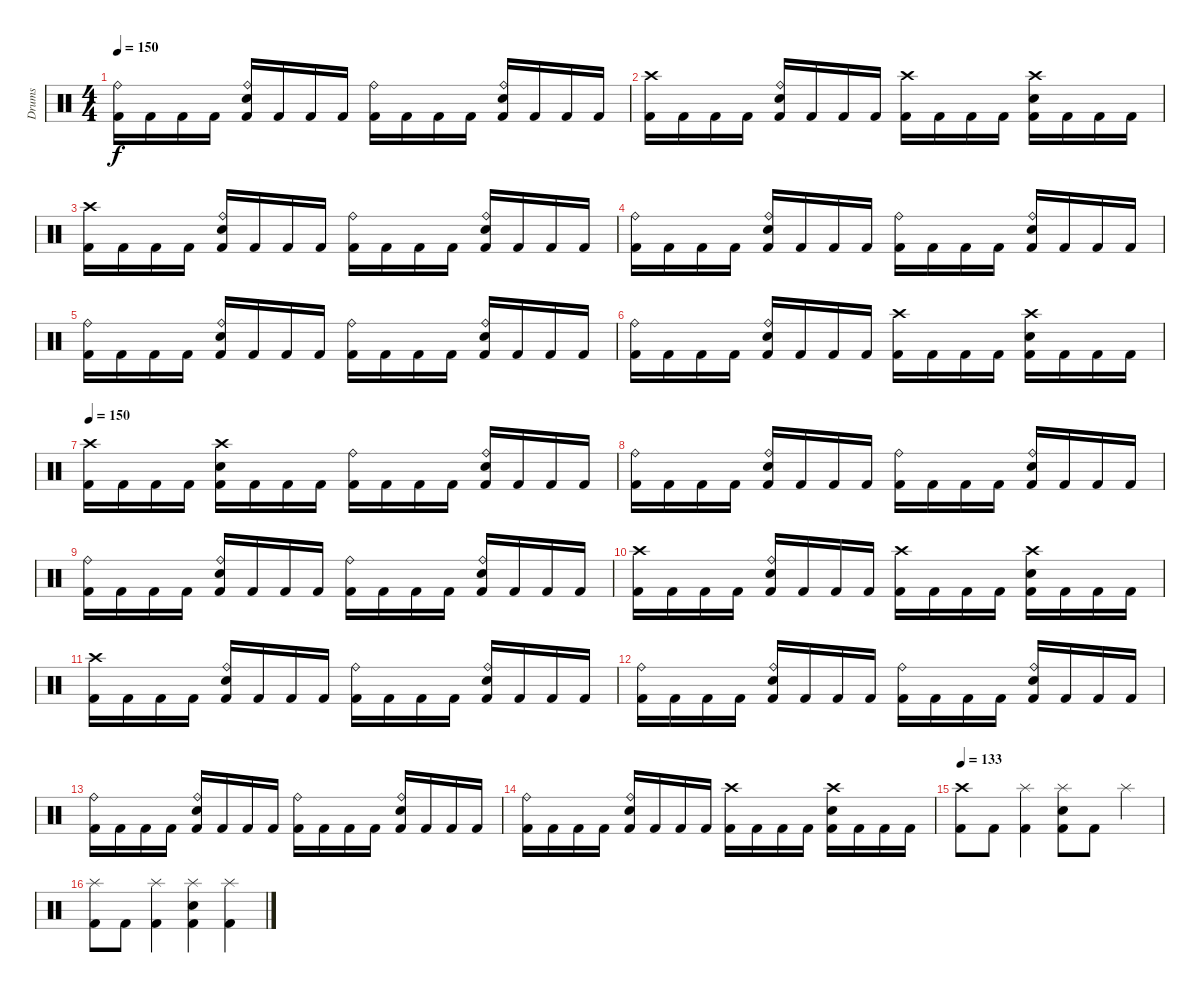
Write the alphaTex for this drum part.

\track ("Drums" "Drums") {instrument percussion}
\staff {score}
\articulation defaults
\ts (4 4)
\tempo 150
\clef neutral
\ks c
("Kick (hit) 2" "Ride (bell)").16{dy f} "Kick (hit) 2".16 "Kick (hit) 2".16 "Kick (hit) 2".16 ("Kick (hit) 2" "Snare (hit) 2" "Ride (bell)").16 "Kick (hit) 2".16 "Kick (hit) 2".16 "Kick (hit) 2".16 ("Kick (hit) 2" "Ride (bell)").16 "Kick (hit) 2".16 "Kick (hit) 2".16 "Kick (hit) 2".16 ("Kick (hit) 2" "Snare (hit) 2" "Ride (bell)").16 "Kick (hit) 2".16 "Kick (hit) 2".16 "Kick (hit) 2".16 |
("Kick (hit) 2" "Crash high (hit)").16 "Kick (hit) 2".16 "Kick (hit) 2".16 "Kick (hit) 2".16 ("Kick (hit) 2" "Snare (hit) 2" "Ride (bell)").16 "Kick (hit) 2".16 "Kick (hit) 2".16 "Kick (hit) 2".16 ("Kick (hit) 2" "Crash high (hit)").16 "Kick (hit) 2".16 "Kick (hit) 2".16 "Kick (hit) 2".16 ("Kick (hit) 2" "Snare (hit) 2" "Crash high (hit)").16 "Kick (hit) 2".16 "Kick (hit) 2".16 "Kick (hit) 2".16 |
("Kick (hit) 2" "Crash high (hit)").16 "Kick (hit) 2".16 "Kick (hit) 2".16 "Kick (hit) 2".16 ("Kick (hit) 2" "Snare (hit) 2" "Ride (bell)").16 "Kick (hit) 2".16 "Kick (hit) 2".16 "Kick (hit) 2".16 ("Kick (hit) 2" "Ride (bell)").16 "Kick (hit) 2".16 "Kick (hit) 2".16 "Kick (hit) 2".16 ("Kick (hit) 2" "Snare (hit) 2" "Ride (bell)").16 "Kick (hit) 2".16 "Kick (hit) 2".16 "Kick (hit) 2".16 |
("Kick (hit) 2" "Ride (bell)").16 "Kick (hit) 2".16 "Kick (hit) 2".16 "Kick (hit) 2".16 ("Kick (hit) 2" "Snare (hit) 2" "Ride (bell)").16 "Kick (hit) 2".16 "Kick (hit) 2".16 "Kick (hit) 2".16 ("Kick (hit) 2" "Ride (bell)").16 "Kick (hit) 2".16 "Kick (hit) 2".16 "Kick (hit) 2".16 ("Kick (hit) 2" "Snare (hit) 2" "Ride (bell)").16 "Kick (hit) 2".16 "Kick (hit) 2".16 "Kick (hit) 2".16 |
("Kick (hit) 2" "Ride (bell)").16 "Kick (hit) 2".16 "Kick (hit) 2".16 "Kick (hit) 2".16 ("Kick (hit) 2" "Snare (hit) 2" "Ride (bell)").16 "Kick (hit) 2".16 "Kick (hit) 2".16 "Kick (hit) 2".16 ("Kick (hit) 2" "Ride (bell)").16 "Kick (hit) 2".16 "Kick (hit) 2".16 "Kick (hit) 2".16 ("Kick (hit) 2" "Snare (hit) 2" "Ride (bell)").16 "Kick (hit) 2".16 "Kick (hit) 2".16 "Kick (hit) 2".16 |
("Kick (hit) 2" "Ride (bell)").16 "Kick (hit) 2".16 "Kick (hit) 2".16 "Kick (hit) 2".16 ("Kick (hit) 2" "Snare (hit) 2" "Ride (bell)").16 "Kick (hit) 2".16 "Kick (hit) 2".16 "Kick (hit) 2".16 ("Kick (hit) 2" "Crash high (hit)").16 "Kick (hit) 2".16 "Kick (hit) 2".16 "Kick (hit) 2".16 ("Kick (hit) 2" "Snare (hit) 2" "Crash high (hit)").16 "Kick (hit) 2".16 "Kick (hit) 2".16 "Kick (hit) 2".16 |
\tempo 150
("Kick (hit) 2" "Crash high (hit)").16 "Kick (hit) 2".16 "Kick (hit) 2".16 "Kick (hit) 2".16 ("Kick (hit) 2" "Snare (hit) 2" "Crash high (hit)").16 "Kick (hit) 2".16 "Kick (hit) 2".16 "Kick (hit) 2".16 ("Kick (hit) 2" "Ride (bell)").16 "Kick (hit) 2".16 "Kick (hit) 2".16 "Kick (hit) 2".16 ("Kick (hit) 2" "Snare (hit) 2" "Ride (bell)").16 "Kick (hit) 2".16 "Kick (hit) 2".16 "Kick (hit) 2".16 |
("Kick (hit) 2" "Ride (bell)").16 "Kick (hit) 2".16 "Kick (hit) 2".16 "Kick (hit) 2".16 ("Kick (hit) 2" "Snare (hit) 2" "Ride (bell)").16 "Kick (hit) 2".16 "Kick (hit) 2".16 "Kick (hit) 2".16 ("Kick (hit) 2" "Ride (bell)").16 "Kick (hit) 2".16 "Kick (hit) 2".16 "Kick (hit) 2".16 ("Kick (hit) 2" "Snare (hit) 2" "Ride (bell)").16 "Kick (hit) 2".16 "Kick (hit) 2".16 "Kick (hit) 2".16 |
("Kick (hit) 2" "Ride (bell)").16 "Kick (hit) 2".16 "Kick (hit) 2".16 "Kick (hit) 2".16 ("Kick (hit) 2" "Snare (hit) 2" "Ride (bell)").16 "Kick (hit) 2".16 "Kick (hit) 2".16 "Kick (hit) 2".16 ("Kick (hit) 2" "Ride (bell)").16 "Kick (hit) 2".16 "Kick (hit) 2".16 "Kick (hit) 2".16 ("Kick (hit) 2" "Snare (hit) 2" "Ride (bell)").16 "Kick (hit) 2".16 "Kick (hit) 2".16 "Kick (hit) 2".16 |
("Kick (hit) 2" "Crash high (hit)").16 "Kick (hit) 2".16 "Kick (hit) 2".16 "Kick (hit) 2".16 ("Kick (hit) 2" "Snare (hit) 2" "Ride (bell)").16 "Kick (hit) 2".16 "Kick (hit) 2".16 "Kick (hit) 2".16 ("Kick (hit) 2" "Crash high (hit)").16 "Kick (hit) 2".16 "Kick (hit) 2".16 "Kick (hit) 2".16 ("Kick (hit) 2" "Snare (hit) 2" "Crash high (hit)").16 "Kick (hit) 2".16 "Kick (hit) 2".16 "Kick (hit) 2".16 |
("Kick (hit) 2" "Crash high (hit)").16 "Kick (hit) 2".16 "Kick (hit) 2".16 "Kick (hit) 2".16 ("Kick (hit) 2" "Snare (hit) 2" "Ride (bell)").16 "Kick (hit) 2".16 "Kick (hit) 2".16 "Kick (hit) 2".16 ("Kick (hit) 2" "Ride (bell)").16 "Kick (hit) 2".16 "Kick (hit) 2".16 "Kick (hit) 2".16 ("Kick (hit) 2" "Snare (hit) 2" "Ride (bell)").16 "Kick (hit) 2".16 "Kick (hit) 2".16 "Kick (hit) 2".16 |
("Kick (hit) 2" "Ride (bell)").16 "Kick (hit) 2".16 "Kick (hit) 2".16 "Kick (hit) 2".16 ("Kick (hit) 2" "Snare (hit) 2" "Ride (bell)").16 "Kick (hit) 2".16 "Kick (hit) 2".16 "Kick (hit) 2".16 ("Kick (hit) 2" "Ride (bell)").16 "Kick (hit) 2".16 "Kick (hit) 2".16 "Kick (hit) 2".16 ("Kick (hit) 2" "Snare (hit) 2" "Ride (bell)").16 "Kick (hit) 2".16 "Kick (hit) 2".16 "Kick (hit) 2".16 |
("Kick (hit) 2" "Ride (bell)").16 "Kick (hit) 2".16 "Kick (hit) 2".16 "Kick (hit) 2".16 ("Kick (hit) 2" "Snare (hit) 2" "Ride (bell)").16 "Kick (hit) 2".16 "Kick (hit) 2".16 "Kick (hit) 2".16 ("Kick (hit) 2" "Ride (bell)").16 "Kick (hit) 2".16 "Kick (hit) 2".16 "Kick (hit) 2".16 ("Kick (hit) 2" "Snare (hit) 2" "Ride (bell)").16 "Kick (hit) 2".16 "Kick (hit) 2".16 "Kick (hit) 2".16 |
("Kick (hit) 2" "Ride (bell)").16 "Kick (hit) 2".16 "Kick (hit) 2".16 "Kick (hit) 2".16 ("Kick (hit) 2" "Snare (hit) 2" "Ride (bell)").16 "Kick (hit) 2".16 "Kick (hit) 2".16 "Kick (hit) 2".16 ("Kick (hit) 2" "Crash high (hit)").16 "Kick (hit) 2".16 "Kick (hit) 2".16 "Kick (hit) 2".16 ("Kick (hit) 2" "Snare (hit) 2" "Crash high (hit)").16 "Kick (hit) 2".16 "Kick (hit) 2".16 "Kick (hit) 2".16 |
\tempo 133
("Kick (hit) 2" "Crash high (hit)").8 "Kick (hit) 2".8 ("Kick (hit) 2" "Splash (hit)").4 ("Kick (hit) 2" "Snare (hit) 2" "Splash (hit)").8 "Kick (hit) 2".8 "Splash (hit)".4 |
("Kick (hit) 2" "Splash (hit)").8 "Kick (hit) 2".8 ("Kick (hit) 2" "Splash (hit)").4 ("Kick (hit) 2" "Snare (hit) 2" "Splash (hit)").4 ("Kick (hit) 2" "Splash (hit)").4
